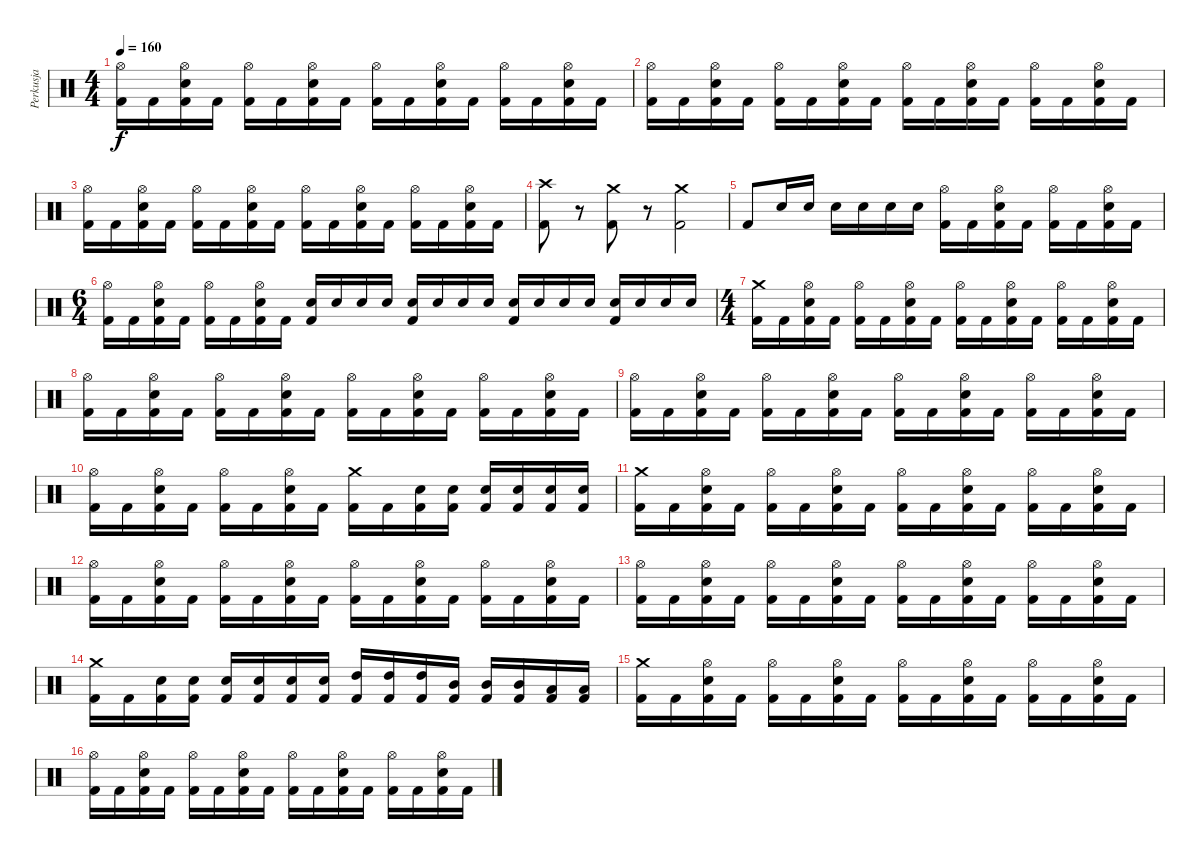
\track ("Perkusja" "Perkusja") {instrument percussion}
\staff {score}
\articulation defaults
\ts (4 4)
\tempo 160
\clef neutral
\ks c
("Hi-Hat (open)" "Kick (hit) 2").16{dy f} "Kick (hit) 2".16 ("Hi-Hat (open)" "Snare (hit) 2" "Kick (hit) 2").16 "Kick (hit) 2".16 ("Hi-Hat (open)" "Kick (hit) 2").16 "Kick (hit) 2".16 ("Hi-Hat (open)" "Snare (hit) 2" "Kick (hit) 2").16 "Kick (hit) 2".16 ("Hi-Hat (open)" "Kick (hit) 2").16 "Kick (hit) 2".16 ("Hi-Hat (open)" "Snare (hit) 2" "Kick (hit) 2").16 "Kick (hit) 2".16 ("Hi-Hat (open)" "Kick (hit) 2").16 "Kick (hit) 2".16 ("Hi-Hat (open)" "Snare (hit) 2" "Kick (hit) 2").16 "Kick (hit) 2".16 |
("Hi-Hat (open)" "Kick (hit) 2").16 "Kick (hit) 2".16 ("Hi-Hat (open)" "Snare (hit) 2" "Kick (hit) 2").16 "Kick (hit) 2".16 ("Hi-Hat (open)" "Kick (hit) 2").16 "Kick (hit) 2".16 ("Hi-Hat (open)" "Snare (hit) 2" "Kick (hit) 2").16 "Kick (hit) 2".16 ("Hi-Hat (open)" "Kick (hit) 2").16 "Kick (hit) 2".16 ("Hi-Hat (open)" "Snare (hit) 2" "Kick (hit) 2").16 "Kick (hit) 2".16 ("Hi-Hat (open)" "Kick (hit) 2").16 "Kick (hit) 2".16 ("Hi-Hat (open)" "Snare (hit) 2" "Kick (hit) 2").16 "Kick (hit) 2".16 |
("Hi-Hat (open)" "Kick (hit) 2").16 "Kick (hit) 2".16 ("Hi-Hat (open)" "Snare (hit) 2" "Kick (hit) 2").16 "Kick (hit) 2".16 ("Hi-Hat (open)" "Kick (hit) 2").16 "Kick (hit) 2".16 ("Hi-Hat (open)" "Snare (hit) 2" "Kick (hit) 2").16 "Kick (hit) 2".16 ("Hi-Hat (open)" "Kick (hit) 2").16 "Kick (hit) 2".16 ("Hi-Hat (open)" "Snare (hit) 2" "Kick (hit) 2").16 "Kick (hit) 2".16 ("Hi-Hat (open)" "Kick (hit) 2").16 "Kick (hit) 2".16 ("Hi-Hat (open)" "Snare (hit) 2" "Kick (hit) 2").16 "Kick (hit) 2".16 |
("Crash high (hit)" "Kick (hit) 2").8 r.8 ("Crash medium (hit)" "Kick (hit) 2").8 r.8 ("Crash medium (hit)" "Kick (hit) 2").2 |
"Kick (hit) 2".8 "Snare (hit) 2".16 "Snare (hit) 2".16 "Snare (hit) 2".16 "Snare (hit) 2".16 "Snare (hit) 2".16 "Snare (hit) 2".16 ("Hi-Hat (open)" "Kick (hit) 2").16 "Kick (hit) 2".16 ("Hi-Hat (open)" "Snare (hit) 2" "Kick (hit) 2").16 "Kick (hit) 2".16 ("Hi-Hat (open)" "Kick (hit) 2").16 "Kick (hit) 2".16 ("Hi-Hat (open)" "Snare (hit) 2" "Kick (hit) 2").16 "Kick (hit) 2".16 |
\ts (6 4)
("Hi-Hat (open)" "Kick (hit) 2").16 "Kick (hit) 2".16 ("Hi-Hat (open)" "Snare (hit) 2" "Kick (hit) 2").16 "Kick (hit) 2".16 ("Hi-Hat (open)" "Kick (hit) 2").16 "Kick (hit) 2".16 ("Hi-Hat (open)" "Snare (hit) 2" "Kick (hit) 2").16 "Kick (hit) 2".16 ("Snare (hit) 2" "Kick (hit) 2").16 "Snare (hit) 2".16 "Snare (hit) 2".16 "Snare (hit) 2".16 ("Snare (hit) 2" "Kick (hit) 2").16 "Snare (hit) 2".16 "Snare (hit) 2".16 "Snare (hit) 2".16 ("Snare (hit) 2" "Kick (hit) 2").16 "Snare (hit) 2".16 "Snare (hit) 2".16 "Snare (hit) 2".16 ("Snare (hit) 2" "Kick (hit) 2").16 "Snare (hit) 2".16 "Snare (hit) 2".16 "Snare (hit) 2".16 |
\ts (4 4)
("Crash medium (hit)" "Kick (hit) 2").16 "Kick (hit) 2".16 ("Hi-Hat (open)" "Snare (hit) 2" "Kick (hit) 2").16 "Kick (hit) 2".16 ("Hi-Hat (open)" "Kick (hit) 2").16 "Kick (hit) 2".16 ("Hi-Hat (open)" "Snare (hit) 2" "Kick (hit) 2").16 "Kick (hit) 2".16 ("Hi-Hat (open)" "Kick (hit) 2").16 "Kick (hit) 2".16 ("Hi-Hat (open)" "Snare (hit) 2" "Kick (hit) 2").16 "Kick (hit) 2".16 ("Hi-Hat (open)" "Kick (hit) 2").16 "Kick (hit) 2".16 ("Hi-Hat (open)" "Snare (hit) 2" "Kick (hit) 2").16 "Kick (hit) 2".16 |
("Hi-Hat (open)" "Kick (hit) 2").16 "Kick (hit) 2".16 ("Hi-Hat (open)" "Snare (hit) 2" "Kick (hit) 2").16 "Kick (hit) 2".16 ("Hi-Hat (open)" "Kick (hit) 2").16 "Kick (hit) 2".16 ("Hi-Hat (open)" "Snare (hit) 2" "Kick (hit) 2").16 "Kick (hit) 2".16 ("Hi-Hat (open)" "Kick (hit) 2").16 "Kick (hit) 2".16 ("Hi-Hat (open)" "Snare (hit) 2" "Kick (hit) 2").16 "Kick (hit) 2".16 ("Hi-Hat (open)" "Kick (hit) 2").16 "Kick (hit) 2".16 ("Hi-Hat (open)" "Snare (hit) 2" "Kick (hit) 2").16 "Kick (hit) 2".16 |
("Hi-Hat (open)" "Kick (hit) 2").16 "Kick (hit) 2".16 ("Hi-Hat (open)" "Snare (hit) 2" "Kick (hit) 2").16 "Kick (hit) 2".16 ("Hi-Hat (open)" "Kick (hit) 2").16 "Kick (hit) 2".16 ("Hi-Hat (open)" "Snare (hit) 2" "Kick (hit) 2").16 "Kick (hit) 2".16 ("Hi-Hat (open)" "Kick (hit) 2").16 "Kick (hit) 2".16 ("Hi-Hat (open)" "Snare (hit) 2" "Kick (hit) 2").16 "Kick (hit) 2".16 ("Hi-Hat (open)" "Kick (hit) 2").16 "Kick (hit) 2".16 ("Hi-Hat (open)" "Snare (hit) 2" "Kick (hit) 2").16 "Kick (hit) 2".16 |
("Hi-Hat (open)" "Kick (hit) 2").16 "Kick (hit) 2".16 ("Hi-Hat (open)" "Snare (hit) 2" "Kick (hit) 2").16 "Kick (hit) 2".16 ("Hi-Hat (open)" "Kick (hit) 2").16 "Kick (hit) 2".16 ("Hi-Hat (open)" "Snare (hit) 2" "Kick (hit) 2").16 "Kick (hit) 2".16 ("Crash medium (hit)" "Kick (hit) 2").16 "Kick (hit) 2".16 ("Snare (hit) 2" "Kick (hit) 2").16 ("Snare (hit) 2" "Kick (hit) 2").16 ("Snare (hit) 2" "Kick (hit) 2").16 ("Snare (hit) 2" "Kick (hit) 2").16 ("Snare (hit) 2" "Kick (hit) 2").16 ("Snare (hit) 2" "Kick (hit) 2").16 |
("Crash medium (hit)" "Kick (hit) 2").16 "Kick (hit) 2".16 ("Hi-Hat (open)" "Snare (hit) 2" "Kick (hit) 2").16 "Kick (hit) 2".16 ("Hi-Hat (open)" "Kick (hit) 2").16 "Kick (hit) 2".16 ("Hi-Hat (open)" "Snare (hit) 2" "Kick (hit) 2").16 "Kick (hit) 2".16 ("Hi-Hat (open)" "Kick (hit) 2").16 "Kick (hit) 2".16 ("Hi-Hat (open)" "Snare (hit) 2" "Kick (hit) 2").16 "Kick (hit) 2".16 ("Hi-Hat (open)" "Kick (hit) 2").16 "Kick (hit) 2".16 ("Hi-Hat (open)" "Snare (hit) 2" "Kick (hit) 2").16 "Kick (hit) 2".16 |
("Hi-Hat (open)" "Kick (hit) 2").16 "Kick (hit) 2".16 ("Hi-Hat (open)" "Snare (hit) 2" "Kick (hit) 2").16 "Kick (hit) 2".16 ("Hi-Hat (open)" "Kick (hit) 2").16 "Kick (hit) 2".16 ("Hi-Hat (open)" "Snare (hit) 2" "Kick (hit) 2").16 "Kick (hit) 2".16 ("Hi-Hat (open)" "Kick (hit) 2").16 "Kick (hit) 2".16 ("Hi-Hat (open)" "Snare (hit) 2" "Kick (hit) 2").16 "Kick (hit) 2".16 ("Hi-Hat (open)" "Kick (hit) 2").16 "Kick (hit) 2".16 ("Hi-Hat (open)" "Snare (hit) 2" "Kick (hit) 2").16 "Kick (hit) 2".16 |
("Hi-Hat (open)" "Kick (hit) 2").16 "Kick (hit) 2".16 ("Hi-Hat (open)" "Snare (hit) 2" "Kick (hit) 2").16 "Kick (hit) 2".16 ("Hi-Hat (open)" "Kick (hit) 2").16 "Kick (hit) 2".16 ("Hi-Hat (open)" "Snare (hit) 2" "Kick (hit) 2").16 "Kick (hit) 2".16 ("Hi-Hat (open)" "Kick (hit) 2").16 "Kick (hit) 2".16 ("Hi-Hat (open)" "Snare (hit) 2" "Kick (hit) 2").16 "Kick (hit) 2".16 ("Hi-Hat (open)" "Kick (hit) 2").16 "Kick (hit) 2".16 ("Hi-Hat (open)" "Snare (hit) 2" "Kick (hit) 2").16 "Kick (hit) 2".16 |
("Crash medium (hit)" "Kick (hit) 2").16 "Kick (hit) 2".16 ("Snare (hit) 2" "Kick (hit) 2").16 ("Snare (hit) 2" "Kick (hit) 2").16 ("Snare (hit) 2" "Kick (hit) 2").16 ("Snare (hit) 2" "Kick (hit) 2").16 ("Snare (hit) 2" "Kick (hit) 2").16 ("Snare (hit) 2" "Kick (hit) 2").16 ("High Tom (hit)" "Kick (hit) 2").16 ("High Tom (hit)" "Kick (hit) 2").16 ("High Tom (hit)" "Kick (hit) 2").16 ("Mid Tom (hit)" "Kick (hit) 2").16 ("Mid Tom (hit)" "Kick (hit) 2").16 ("Mid Tom (hit)" "Kick (hit) 2").16 ("Low Tom (hit)" "Kick (hit) 2").16 ("Low Tom (hit)" "Kick (hit) 2").16 |
("Crash medium (hit)" "Kick (hit) 2").16 "Kick (hit) 2".16 ("Hi-Hat (open)" "Snare (hit) 2" "Kick (hit) 2").16 "Kick (hit) 2".16 ("Hi-Hat (open)" "Kick (hit) 2").16 "Kick (hit) 2".16 ("Hi-Hat (open)" "Snare (hit) 2" "Kick (hit) 2").16 "Kick (hit) 2".16 ("Hi-Hat (open)" "Kick (hit) 2").16 "Kick (hit) 2".16 ("Hi-Hat (open)" "Snare (hit) 2" "Kick (hit) 2").16 "Kick (hit) 2".16 ("Hi-Hat (open)" "Kick (hit) 2").16 "Kick (hit) 2".16 ("Hi-Hat (open)" "Snare (hit) 2" "Kick (hit) 2").16 "Kick (hit) 2".16 |
("Hi-Hat (open)" "Kick (hit) 2").16 "Kick (hit) 2".16 ("Hi-Hat (open)" "Snare (hit) 2" "Kick (hit) 2").16 "Kick (hit) 2".16 ("Hi-Hat (open)" "Kick (hit) 2").16 "Kick (hit) 2".16 ("Hi-Hat (open)" "Snare (hit) 2" "Kick (hit) 2").16 "Kick (hit) 2".16 ("Hi-Hat (open)" "Kick (hit) 2").16 "Kick (hit) 2".16 ("Hi-Hat (open)" "Snare (hit) 2" "Kick (hit) 2").16 "Kick (hit) 2".16 ("Hi-Hat (open)" "Kick (hit) 2").16 "Kick (hit) 2".16 ("Hi-Hat (open)" "Snare (hit) 2" "Kick (hit) 2").16 "Kick (hit) 2".16
